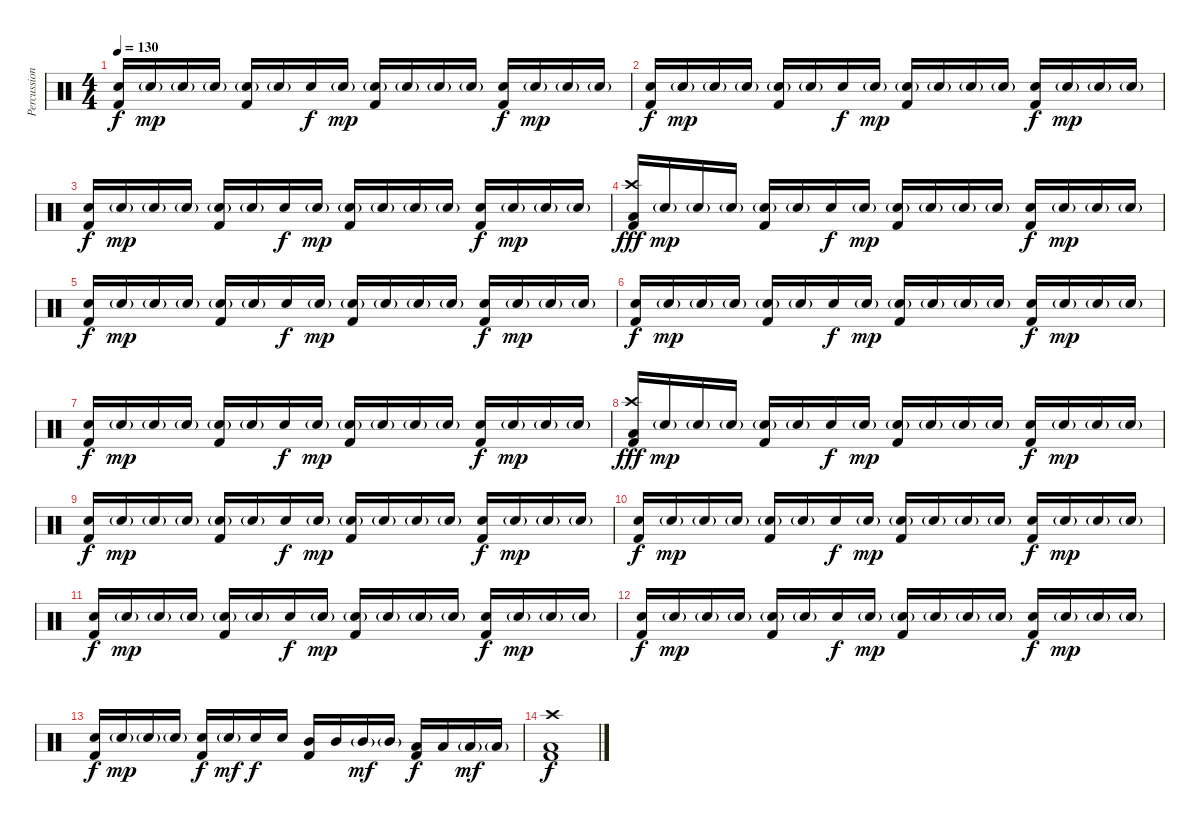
\track ("Percussion" "Percussion") {instrument percussion}
\staff {score}
\articulation defaults
\ts (4 4)
\tempo 130
\clef neutral
\ks c
("Electric Snare (hit)" "Kick (hit) 2").16{dy f} "Electric Snare (hit)"{g}.16{dy mp} "Electric Snare (hit)"{g}.16 "Electric Snare (hit)"{g}.16 ("Electric Snare (hit)"{g} "Kick (hit) 2").16 "Electric Snare (hit)"{g}.16 "Electric Snare (hit)".16{dy f} "Electric Snare (hit)"{g}.16{dy mp} ("Electric Snare (hit)"{g} "Kick (hit) 2").16 "Electric Snare (hit)"{g}.16 "Electric Snare (hit)"{g}.16 "Electric Snare (hit)"{g}.16 ("Electric Snare (hit)" "Kick (hit) 2").16{dy f} "Electric Snare (hit)"{g}.16{dy mp} "Electric Snare (hit)"{g}.16 "Electric Snare (hit)"{g}.16 |
("Electric Snare (hit)" "Kick (hit) 2").16{dy f} "Electric Snare (hit)"{g}.16{dy mp} "Electric Snare (hit)"{g}.16 "Electric Snare (hit)"{g}.16 ("Electric Snare (hit)"{g} "Kick (hit) 2").16 "Electric Snare (hit)"{g}.16 "Electric Snare (hit)".16{dy f} "Electric Snare (hit)"{g}.16{dy mp} ("Electric Snare (hit)"{g} "Kick (hit) 2").16 "Electric Snare (hit)"{g}.16 "Electric Snare (hit)"{g}.16 "Electric Snare (hit)"{g}.16 ("Electric Snare (hit)" "Kick (hit) 2").16{dy f} "Electric Snare (hit)"{g}.16{dy mp} "Electric Snare (hit)"{g}.16 "Electric Snare (hit)"{g}.16 |
("Electric Snare (hit)" "Kick (hit) 2").16{dy f} "Electric Snare (hit)"{g}.16{dy mp} "Electric Snare (hit)"{g}.16 "Electric Snare (hit)"{g}.16 ("Electric Snare (hit)"{g} "Kick (hit) 2").16 "Electric Snare (hit)"{g}.16 "Electric Snare (hit)".16{dy f} "Electric Snare (hit)"{g}.16{dy mp} ("Electric Snare (hit)"{g} "Kick (hit) 2").16 "Electric Snare (hit)"{g}.16 "Electric Snare (hit)"{g}.16 "Electric Snare (hit)"{g}.16 ("Electric Snare (hit)" "Kick (hit) 2").16{dy f} "Electric Snare (hit)"{g}.16{dy mp} "Electric Snare (hit)"{g}.16 "Electric Snare (hit)"{g}.16 |
("Crash high (hit)" "Low Floor Tom (hit)" "Kick (hit) 2").16{dy fff} "Electric Snare (hit)"{g}.16{dy mp} "Electric Snare (hit)"{g}.16 "Electric Snare (hit)"{g}.16 ("Electric Snare (hit)"{g} "Kick (hit) 2").16 "Electric Snare (hit)"{g}.16 "Electric Snare (hit)".16{dy f} "Electric Snare (hit)"{g}.16{dy mp} ("Electric Snare (hit)"{g} "Kick (hit) 2").16 "Electric Snare (hit)"{g}.16 "Electric Snare (hit)"{g}.16 "Electric Snare (hit)"{g}.16 ("Electric Snare (hit)" "Kick (hit) 2").16{dy f} "Electric Snare (hit)"{g}.16{dy mp} "Electric Snare (hit)"{g}.16 "Electric Snare (hit)"{g}.16 |
("Electric Snare (hit)" "Kick (hit) 2").16{dy f} "Electric Snare (hit)"{g}.16{dy mp} "Electric Snare (hit)"{g}.16 "Electric Snare (hit)"{g}.16 ("Electric Snare (hit)"{g} "Kick (hit) 2").16 "Electric Snare (hit)"{g}.16 "Electric Snare (hit)".16{dy f} "Electric Snare (hit)"{g}.16{dy mp} ("Electric Snare (hit)"{g} "Kick (hit) 2").16 "Electric Snare (hit)"{g}.16 "Electric Snare (hit)"{g}.16 "Electric Snare (hit)"{g}.16 ("Electric Snare (hit)" "Kick (hit) 2").16{dy f} "Electric Snare (hit)"{g}.16{dy mp} "Electric Snare (hit)"{g}.16 "Electric Snare (hit)"{g}.16 |
("Electric Snare (hit)" "Kick (hit) 2").16{dy f} "Electric Snare (hit)"{g}.16{dy mp} "Electric Snare (hit)"{g}.16 "Electric Snare (hit)"{g}.16 ("Electric Snare (hit)"{g} "Kick (hit) 2").16 "Electric Snare (hit)"{g}.16 "Electric Snare (hit)".16{dy f} "Electric Snare (hit)"{g}.16{dy mp} ("Electric Snare (hit)"{g} "Kick (hit) 2").16 "Electric Snare (hit)"{g}.16 "Electric Snare (hit)"{g}.16 "Electric Snare (hit)"{g}.16 ("Electric Snare (hit)" "Kick (hit) 2").16{dy f} "Electric Snare (hit)"{g}.16{dy mp} "Electric Snare (hit)"{g}.16 "Electric Snare (hit)"{g}.16 |
("Electric Snare (hit)" "Kick (hit) 2").16{dy f} "Electric Snare (hit)"{g}.16{dy mp} "Electric Snare (hit)"{g}.16 "Electric Snare (hit)"{g}.16 ("Electric Snare (hit)"{g} "Kick (hit) 2").16 "Electric Snare (hit)"{g}.16 "Electric Snare (hit)".16{dy f} "Electric Snare (hit)"{g}.16{dy mp} ("Electric Snare (hit)"{g} "Kick (hit) 2").16 "Electric Snare (hit)"{g}.16 "Electric Snare (hit)"{g}.16 "Electric Snare (hit)"{g}.16 ("Electric Snare (hit)" "Kick (hit) 2").16{dy f} "Electric Snare (hit)"{g}.16{dy mp} "Electric Snare (hit)"{g}.16 "Electric Snare (hit)"{g}.16 |
("Crash high (hit)" "Low Floor Tom (hit)" "Kick (hit) 2").16{dy fff} "Electric Snare (hit)"{g}.16{dy mp} "Electric Snare (hit)"{g}.16 "Electric Snare (hit)"{g}.16 ("Electric Snare (hit)"{g} "Kick (hit) 2").16 "Electric Snare (hit)"{g}.16 "Electric Snare (hit)".16{dy f} "Electric Snare (hit)"{g}.16{dy mp} ("Electric Snare (hit)"{g} "Kick (hit) 2").16 "Electric Snare (hit)"{g}.16 "Electric Snare (hit)"{g}.16 "Electric Snare (hit)"{g}.16 ("Electric Snare (hit)" "Kick (hit) 2").16{dy f} "Electric Snare (hit)"{g}.16{dy mp} "Electric Snare (hit)"{g}.16 "Electric Snare (hit)"{g}.16 |
("Electric Snare (hit)" "Kick (hit) 2").16{dy f} "Electric Snare (hit)"{g}.16{dy mp} "Electric Snare (hit)"{g}.16 "Electric Snare (hit)"{g}.16 ("Electric Snare (hit)"{g} "Kick (hit) 2").16 "Electric Snare (hit)"{g}.16 "Electric Snare (hit)".16{dy f} "Electric Snare (hit)"{g}.16{dy mp} ("Electric Snare (hit)"{g} "Kick (hit) 2").16 "Electric Snare (hit)"{g}.16 "Electric Snare (hit)"{g}.16 "Electric Snare (hit)"{g}.16 ("Electric Snare (hit)" "Kick (hit) 2").16{dy f} "Electric Snare (hit)"{g}.16{dy mp} "Electric Snare (hit)"{g}.16 "Electric Snare (hit)"{g}.16 |
("Electric Snare (hit)" "Kick (hit) 2").16{dy f} "Electric Snare (hit)"{g}.16{dy mp} "Electric Snare (hit)"{g}.16 "Electric Snare (hit)"{g}.16 ("Electric Snare (hit)"{g} "Kick (hit) 2").16 "Electric Snare (hit)"{g}.16 "Electric Snare (hit)".16{dy f} "Electric Snare (hit)"{g}.16{dy mp} ("Electric Snare (hit)"{g} "Kick (hit) 2").16 "Electric Snare (hit)"{g}.16 "Electric Snare (hit)"{g}.16 "Electric Snare (hit)"{g}.16 ("Electric Snare (hit)" "Kick (hit) 2").16{dy f} "Electric Snare (hit)"{g}.16{dy mp} "Electric Snare (hit)"{g}.16 "Electric Snare (hit)"{g}.16 |
("Electric Snare (hit)" "Kick (hit) 2").16{dy f} "Electric Snare (hit)"{g}.16{dy mp} "Electric Snare (hit)"{g}.16 "Electric Snare (hit)"{g}.16 ("Electric Snare (hit)"{g} "Kick (hit) 2").16 "Electric Snare (hit)"{g}.16 "Electric Snare (hit)".16{dy f} "Electric Snare (hit)"{g}.16{dy mp} ("Electric Snare (hit)"{g} "Kick (hit) 2").16 "Electric Snare (hit)"{g}.16 "Electric Snare (hit)"{g}.16 "Electric Snare (hit)"{g}.16 ("Electric Snare (hit)" "Kick (hit) 2").16{dy f} "Electric Snare (hit)"{g}.16{dy mp} "Electric Snare (hit)"{g}.16 "Electric Snare (hit)"{g}.16 |
("Electric Snare (hit)" "Kick (hit) 2").16{dy f} "Electric Snare (hit)"{g}.16{dy mp} "Electric Snare (hit)"{g}.16 "Electric Snare (hit)"{g}.16 ("Electric Snare (hit)"{g} "Kick (hit) 2").16 "Electric Snare (hit)"{g}.16 "Electric Snare (hit)".16{dy f} "Electric Snare (hit)"{g}.16{dy mp} ("Electric Snare (hit)"{g} "Kick (hit) 2").16 "Electric Snare (hit)"{g}.16 "Electric Snare (hit)"{g}.16 "Electric Snare (hit)"{g}.16 ("Electric Snare (hit)" "Kick (hit) 2").16{dy f} "Electric Snare (hit)"{g}.16{dy mp} "Electric Snare (hit)"{g}.16 "Electric Snare (hit)"{g}.16 |
("Electric Snare (hit)" "Kick (hit) 2").16{dy f} "Electric Snare (hit)"{g}.16{dy mp} "Electric Snare (hit)"{g}.16 "Electric Snare (hit)"{g}.16 ("Electric Snare (hit)" "Kick (hit) 2").16{dy f} "Electric Snare (hit)"{g}.16{dy mf} "Electric Snare (hit)".16{dy f} "Electric Snare (hit)".16 ("Mid Tom (hit)" "Kick (hit) 2").16 "Mid Tom (hit)".16 "Mid Tom (hit)"{g}.16{dy mf} "Mid Tom (hit)"{g}.16 ("Low Tom (hit)" "Kick (hit) 2").16{dy f} "Low Tom (hit)".16 "Low Tom (hit)"{g}.16{dy mf} "Low Tom (hit)"{g}.16 |
("Crash high (hit)" "Low Floor Tom (hit)" "Kick (hit) 2").1{dy f}
